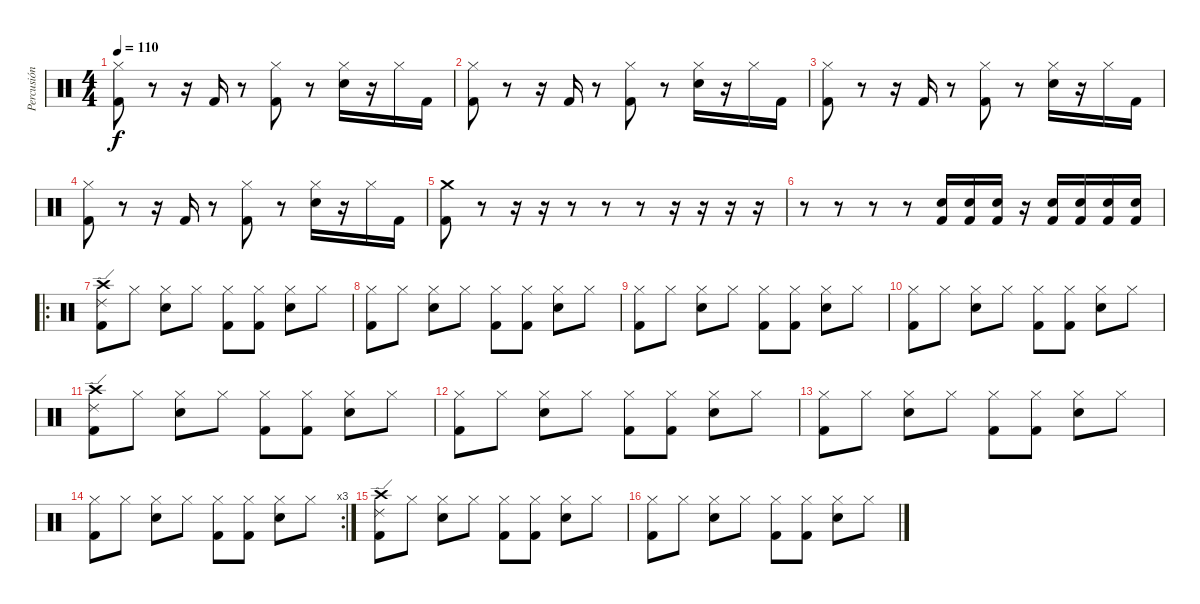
\track ("Percusión" "Percusión") {instrument percussion}
\staff {score}
\articulation defaults
\ts (4 4)
\tempo 110
\clef neutral
\ks c
("Hi-Hat (closed)" "Kick (hit) 2").8{dy f} r.8 r.16 "Kick (hit) 2".16 r.8 ("Hi-Hat (closed)" "Kick (hit) 2").8 r.8 ("Hi-Hat (closed)" "Snare (hit) 2").16 r.16 "Hi-Hat (closed)".16 "Kick (hit) 2".16 |
("Hi-Hat (closed)" "Kick (hit) 2").8 r.8 r.16 "Kick (hit) 2".16 r.8 ("Hi-Hat (closed)" "Kick (hit) 2").8 r.8 ("Hi-Hat (closed)" "Snare (hit) 2").16 r.16 "Hi-Hat (closed)".16 "Kick (hit) 2".16 |
("Hi-Hat (closed)" "Kick (hit) 2").8 r.8 r.16 "Kick (hit) 2".16 r.8 ("Hi-Hat (closed)" "Kick (hit) 2").8 r.8 ("Hi-Hat (closed)" "Snare (hit) 2").16 r.16 "Hi-Hat (closed)".16 "Kick (hit) 2".16 |
("Hi-Hat (closed)" "Kick (hit) 2").8 r.8 r.16 "Kick (hit) 2".16 r.8 ("Hi-Hat (closed)" "Kick (hit) 2").8 r.8 ("Hi-Hat (closed)" "Snare (hit) 2").16 r.16 "Hi-Hat (closed)".16 "Kick (hit) 2".16 |
("Crash medium (hit)" "Kick (hit) 2").8 r.8 r.16 r.16 r.8 r.8 r.8 r.16 r.16 r.16 r.16 |
r.8 r.8 r.8 r.8 ("Snare (hit) 2" "Kick (hit) 2").16 ("Snare (hit) 2" "Kick (hit) 2").16 ("Snare (hit) 2" "Kick (hit) 2").16 r.16 ("Snare (hit) 2" "Kick (hit) 2").16 ("Snare (hit) 2" "Kick (hit) 2").16 ("Snare (hit) 2" "Kick (hit) 2").16 ("Snare (hit) 2" "Kick (hit) 2").16 |
\ro
("Ride (edge) 2" "Kick (hit) 2" "Crash high (hit)").8 "Hi-Hat (closed)".8 ("Snare (hit) 2" "Hi-Hat (closed)").8 "Hi-Hat (closed)".8 ("Kick (hit) 2" "Hi-Hat (closed)").8 ("Kick (hit) 2" "Hi-Hat (closed)").8 ("Snare (hit) 2" "Hi-Hat (closed)").8 "Hi-Hat (closed)".8 |
("Kick (hit) 2" "Hi-Hat (closed)").8 "Hi-Hat (closed)".8 ("Snare (hit) 2" "Hi-Hat (closed)").8 "Hi-Hat (closed)".8 ("Kick (hit) 2" "Hi-Hat (closed)").8 ("Kick (hit) 2" "Hi-Hat (closed)").8 ("Snare (hit) 2" "Hi-Hat (closed)").8 "Hi-Hat (closed)".8 |
("Kick (hit) 2" "Hi-Hat (closed)").8 "Hi-Hat (closed)".8 ("Snare (hit) 2" "Hi-Hat (closed)").8 "Hi-Hat (closed)".8 ("Kick (hit) 2" "Hi-Hat (closed)").8 ("Kick (hit) 2" "Hi-Hat (closed)").8 ("Snare (hit) 2" "Hi-Hat (closed)").8 "Hi-Hat (closed)".8 |
("Kick (hit) 2" "Hi-Hat (closed)").8 "Hi-Hat (closed)".8 ("Snare (hit) 2" "Hi-Hat (closed)").8 "Hi-Hat (closed)".8 ("Kick (hit) 2" "Hi-Hat (closed)").8 ("Kick (hit) 2" "Hi-Hat (closed)").8 ("Snare (hit) 2" "Hi-Hat (closed)").8 "Hi-Hat (closed)".8 |
("Ride (edge) 2" "Kick (hit) 2" "Crash high (hit)").8 "Hi-Hat (closed)".8 ("Snare (hit) 2" "Hi-Hat (closed)").8 "Hi-Hat (closed)".8 ("Kick (hit) 2" "Hi-Hat (closed)").8 ("Kick (hit) 2" "Hi-Hat (closed)").8 ("Snare (hit) 2" "Hi-Hat (closed)").8 "Hi-Hat (closed)".8 |
("Kick (hit) 2" "Hi-Hat (closed)").8 "Hi-Hat (closed)".8 ("Snare (hit) 2" "Hi-Hat (closed)").8 "Hi-Hat (closed)".8 ("Kick (hit) 2" "Hi-Hat (closed)").8 ("Kick (hit) 2" "Hi-Hat (closed)").8 ("Snare (hit) 2" "Hi-Hat (closed)").8 "Hi-Hat (closed)".8 |
("Kick (hit) 2" "Hi-Hat (closed)").8 "Hi-Hat (closed)".8 ("Snare (hit) 2" "Hi-Hat (closed)").8 "Hi-Hat (closed)".8 ("Kick (hit) 2" "Hi-Hat (closed)").8 ("Kick (hit) 2" "Hi-Hat (closed)").8 ("Snare (hit) 2" "Hi-Hat (closed)").8 "Hi-Hat (closed)".8 |
\rc 3
("Kick (hit) 2" "Hi-Hat (closed)").8 "Hi-Hat (closed)".8 ("Snare (hit) 2" "Hi-Hat (closed)").8 "Hi-Hat (closed)".8 ("Kick (hit) 2" "Hi-Hat (closed)").8 ("Kick (hit) 2" "Hi-Hat (closed)").8 ("Snare (hit) 2" "Hi-Hat (closed)").8 "Hi-Hat (closed)".8 |
("Ride (edge) 2" "Kick (hit) 2" "Crash high (hit)").8 "Hi-Hat (closed)".8 ("Snare (hit) 2" "Hi-Hat (closed)").8 "Hi-Hat (closed)".8 ("Kick (hit) 2" "Hi-Hat (closed)").8 ("Kick (hit) 2" "Hi-Hat (closed)").8 ("Snare (hit) 2" "Hi-Hat (closed)").8 "Hi-Hat (closed)".8 |
("Kick (hit) 2" "Hi-Hat (closed)").8 "Hi-Hat (closed)".8 ("Snare (hit) 2" "Hi-Hat (closed)").8 "Hi-Hat (closed)".8 ("Kick (hit) 2" "Hi-Hat (closed)").8 ("Kick (hit) 2" "Hi-Hat (closed)").8 ("Snare (hit) 2" "Hi-Hat (closed)").8 "Hi-Hat (closed)".8
